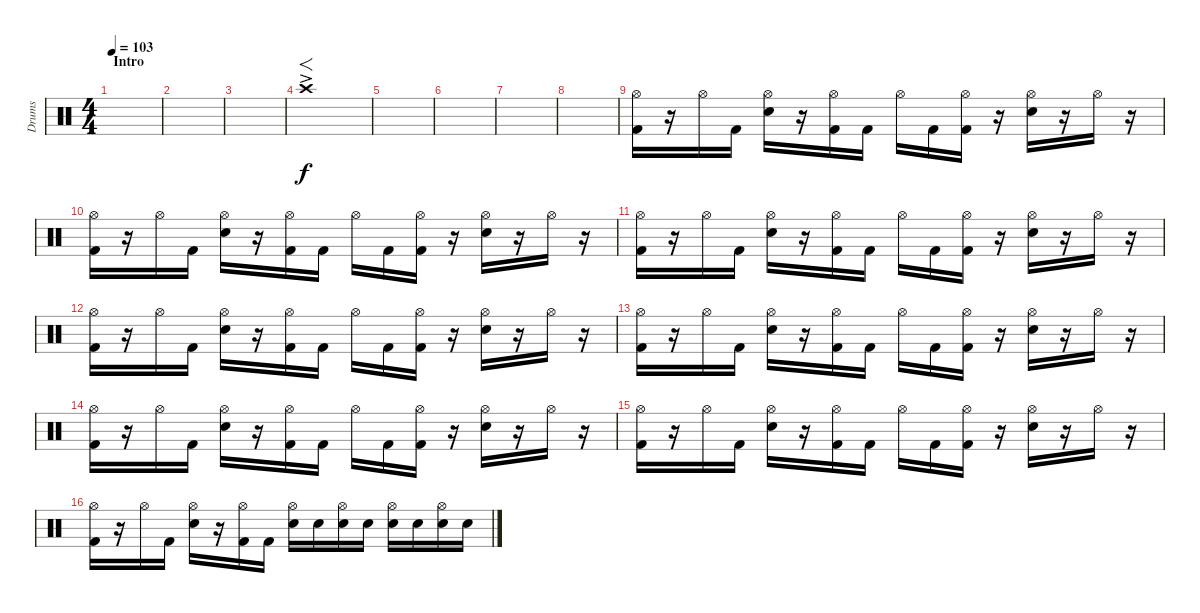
\track ("Drums" "Drums") {instrument percussion}
\staff {score}
\articulation defaults
\ts (4 4)
\section ("" "Intro")
\tempo 103
\clef neutral
\ks c
|
|
|
"Crash high (hit)"{ac}.1{f} |
|
|
|
|
("Hi-Hat (open)" "Kick (hit) 2").16{dy f volume 11} r.16 "Hi-Hat (open)".16 "Kick (hit) 2".16 ("Hi-Hat (open)" "Electric Snare (hit)").16 r.16 ("Hi-Hat (open)" "Kick (hit) 2").16 "Kick (hit) 2".16 "Hi-Hat (open)".16 "Kick (hit) 2".16 ("Hi-Hat (open)" "Kick (hit) 2").16 r.16 ("Hi-Hat (open)" "Electric Snare (hit)").16 r.16 "Hi-Hat (open)".16 r.16 |
("Hi-Hat (open)" "Kick (hit) 2").16{volume 11} r.16 "Hi-Hat (open)".16 "Kick (hit) 2".16 ("Hi-Hat (open)" "Electric Snare (hit)").16 r.16 ("Hi-Hat (open)" "Kick (hit) 2").16 "Kick (hit) 2".16 "Hi-Hat (open)".16 "Kick (hit) 2".16 ("Hi-Hat (open)" "Kick (hit) 2").16 r.16 ("Hi-Hat (open)" "Electric Snare (hit)").16 r.16 "Hi-Hat (open)".16 r.16 |
("Hi-Hat (open)" "Kick (hit) 2").16{volume 11} r.16 "Hi-Hat (open)".16 "Kick (hit) 2".16 ("Hi-Hat (open)" "Electric Snare (hit)").16 r.16 ("Hi-Hat (open)" "Kick (hit) 2").16 "Kick (hit) 2".16 "Hi-Hat (open)".16 "Kick (hit) 2".16 ("Hi-Hat (open)" "Kick (hit) 2").16 r.16 ("Hi-Hat (open)" "Electric Snare (hit)").16 r.16 "Hi-Hat (open)".16 r.16 |
("Hi-Hat (open)" "Kick (hit) 2").16{volume 11} r.16 "Hi-Hat (open)".16 "Kick (hit) 2".16 ("Hi-Hat (open)" "Electric Snare (hit)").16 r.16 ("Hi-Hat (open)" "Kick (hit) 2").16 "Kick (hit) 2".16 "Hi-Hat (open)".16 "Kick (hit) 2".16 ("Hi-Hat (open)" "Kick (hit) 2").16 r.16 ("Hi-Hat (open)" "Electric Snare (hit)").16 r.16 "Hi-Hat (open)".16 r.16 |
("Hi-Hat (open)" "Kick (hit) 2").16{volume 11} r.16 "Hi-Hat (open)".16 "Kick (hit) 2".16 ("Hi-Hat (open)" "Electric Snare (hit)").16 r.16 ("Hi-Hat (open)" "Kick (hit) 2").16 "Kick (hit) 2".16 "Hi-Hat (open)".16 "Kick (hit) 2".16 ("Hi-Hat (open)" "Kick (hit) 2").16 r.16 ("Hi-Hat (open)" "Electric Snare (hit)").16 r.16 "Hi-Hat (open)".16 r.16 |
("Hi-Hat (open)" "Kick (hit) 2").16{volume 11} r.16 "Hi-Hat (open)".16 "Kick (hit) 2".16 ("Hi-Hat (open)" "Electric Snare (hit)").16 r.16 ("Hi-Hat (open)" "Kick (hit) 2").16 "Kick (hit) 2".16 "Hi-Hat (open)".16 "Kick (hit) 2".16 ("Hi-Hat (open)" "Kick (hit) 2").16 r.16 ("Hi-Hat (open)" "Electric Snare (hit)").16 r.16 "Hi-Hat (open)".16 r.16 |
("Hi-Hat (open)" "Kick (hit) 2").16{volume 11} r.16 "Hi-Hat (open)".16 "Kick (hit) 2".16 ("Hi-Hat (open)" "Electric Snare (hit)").16 r.16 ("Hi-Hat (open)" "Kick (hit) 2").16 "Kick (hit) 2".16 "Hi-Hat (open)".16 "Kick (hit) 2".16 ("Hi-Hat (open)" "Kick (hit) 2").16 r.16 ("Hi-Hat (open)" "Electric Snare (hit)").16 r.16 "Hi-Hat (open)".16 r.16 |
("Hi-Hat (open)" "Kick (hit) 2").16{volume 11} r.16 "Hi-Hat (open)".16 "Kick (hit) 2".16 ("Hi-Hat (open)" "Electric Snare (hit)").16 r.16 ("Hi-Hat (open)" "Kick (hit) 2").16 "Kick (hit) 2".16 ("Hi-Hat (open)" "Electric Snare (hit)").16 "Electric Snare (hit)".16 ("Hi-Hat (open)" "Electric Snare (hit)").16 "Electric Snare (hit)".16 ("Hi-Hat (open)" "Electric Snare (hit)").16 "Electric Snare (hit)".16 ("Hi-Hat (open)" "Electric Snare (hit)").16 "Electric Snare (hit)".16
